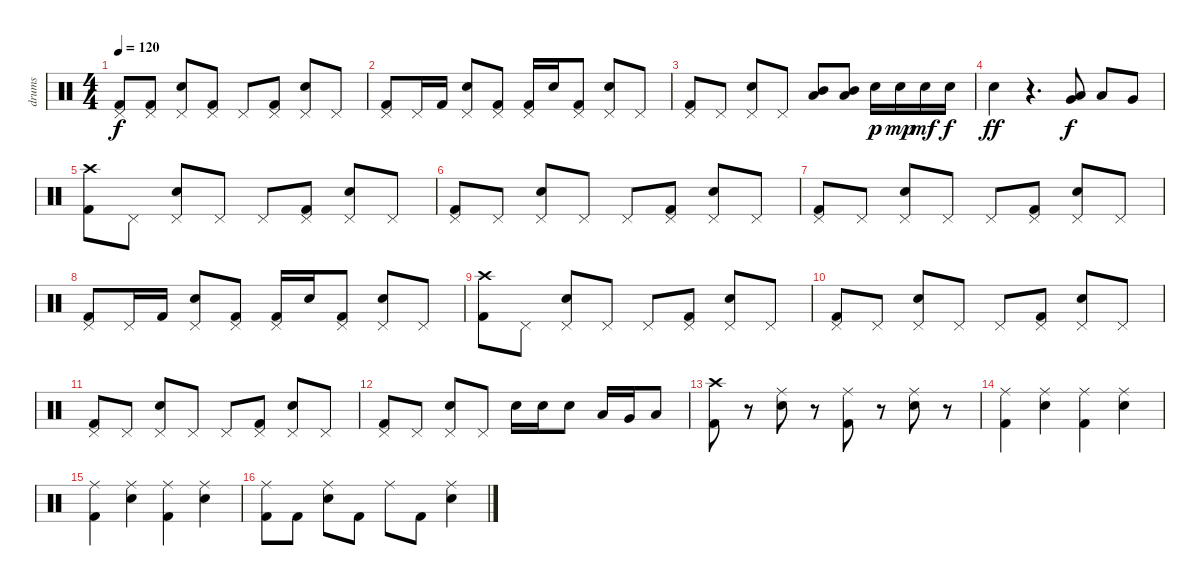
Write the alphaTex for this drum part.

\track ("drums" "drums") {instrument percussion}
\staff {score}
\articulation defaults
\ts (4 4)
\tempo 120
\clef neutral
\ks c
("Pedal Hi-Hat (hit)" "Kick (hit) 2").8{dy f} ("Pedal Hi-Hat (hit)" "Kick (hit) 2").8 ("Pedal Hi-Hat (hit)" "Electric Snare (hit)").8 ("Pedal Hi-Hat (hit)" "Kick (hit) 2").8 "Pedal Hi-Hat (hit)".8 ("Pedal Hi-Hat (hit)" "Kick (hit) 2").8 ("Pedal Hi-Hat (hit)" "Electric Snare (hit)").8 "Pedal Hi-Hat (hit)".8 |
("Pedal Hi-Hat (hit)" "Kick (hit) 2").8 "Pedal Hi-Hat (hit)".16 "Kick (hit) 2".16 ("Pedal Hi-Hat (hit)" "Electric Snare (hit)").8 ("Pedal Hi-Hat (hit)" "Kick (hit) 2").8 ("Pedal Hi-Hat (hit)" "Kick (hit) 2").16 "Electric Snare (hit)".16 ("Pedal Hi-Hat (hit)" "Kick (hit) 2").8 ("Pedal Hi-Hat (hit)" "Electric Snare (hit)").8 "Pedal Hi-Hat (hit)".8 |
("Pedal Hi-Hat (hit)" "Kick (hit) 2").8 "Pedal Hi-Hat (hit)".8 ("Pedal Hi-Hat (hit)" "Electric Snare (hit)").8 "Pedal Hi-Hat (hit)".8 ("Mid Tom (hit)" "Low Tom (hit)").8 ("Mid Tom (hit)" "Low Tom (hit)").8 "Electric Snare (hit)".16{dy p} "Electric Snare (hit)".16{dy mp} "Electric Snare (hit)".16{dy mf} "Electric Snare (hit)".16{dy f} |
"Electric Snare (hit)".4{dy ff} r.4{d} ("Very Low Tom (hit)" "Low Tom (hit)").8{dy f} "Low Tom (hit)".8 "Very Low Tom (hit)".8 |
("Crash high (hit)" "Kick (hit) 2").8 "Pedal Hi-Hat (hit)".8 ("Pedal Hi-Hat (hit)" "Electric Snare (hit)").8 "Pedal Hi-Hat (hit)".8 "Pedal Hi-Hat (hit)".8 ("Pedal Hi-Hat (hit)" "Kick (hit) 2").8 ("Pedal Hi-Hat (hit)" "Electric Snare (hit)").8 "Pedal Hi-Hat (hit)".8 |
("Pedal Hi-Hat (hit)" "Kick (hit) 2").8 "Pedal Hi-Hat (hit)".8 ("Pedal Hi-Hat (hit)" "Electric Snare (hit)").8 "Pedal Hi-Hat (hit)".8 "Pedal Hi-Hat (hit)".8 ("Pedal Hi-Hat (hit)" "Kick (hit) 2").8 ("Pedal Hi-Hat (hit)" "Electric Snare (hit)").8 "Pedal Hi-Hat (hit)".8 |
("Pedal Hi-Hat (hit)" "Kick (hit) 2").8 "Pedal Hi-Hat (hit)".8 ("Pedal Hi-Hat (hit)" "Electric Snare (hit)").8 "Pedal Hi-Hat (hit)".8 "Pedal Hi-Hat (hit)".8 ("Pedal Hi-Hat (hit)" "Kick (hit) 2").8 ("Pedal Hi-Hat (hit)" "Electric Snare (hit)").8 "Pedal Hi-Hat (hit)".8 |
("Pedal Hi-Hat (hit)" "Kick (hit) 2").8 "Pedal Hi-Hat (hit)".16 "Kick (hit) 2".16 ("Pedal Hi-Hat (hit)" "Electric Snare (hit)").8 ("Pedal Hi-Hat (hit)" "Kick (hit) 2").8 ("Pedal Hi-Hat (hit)" "Kick (hit) 2").16 "Electric Snare (hit)".16 ("Pedal Hi-Hat (hit)" "Kick (hit) 2").8 ("Pedal Hi-Hat (hit)" "Electric Snare (hit)").8 "Pedal Hi-Hat (hit)".8 |
("Crash high (hit)" "Kick (hit) 2").8 "Pedal Hi-Hat (hit)".8 ("Pedal Hi-Hat (hit)" "Electric Snare (hit)").8 "Pedal Hi-Hat (hit)".8 "Pedal Hi-Hat (hit)".8 ("Pedal Hi-Hat (hit)" "Kick (hit) 2").8 ("Pedal Hi-Hat (hit)" "Electric Snare (hit)").8 "Pedal Hi-Hat (hit)".8 |
("Pedal Hi-Hat (hit)" "Kick (hit) 2").8 "Pedal Hi-Hat (hit)".8 ("Pedal Hi-Hat (hit)" "Electric Snare (hit)").8 "Pedal Hi-Hat (hit)".8 "Pedal Hi-Hat (hit)".8 ("Pedal Hi-Hat (hit)" "Kick (hit) 2").8 ("Pedal Hi-Hat (hit)" "Electric Snare (hit)").8 "Pedal Hi-Hat (hit)".8 |
("Pedal Hi-Hat (hit)" "Kick (hit) 2").8 "Pedal Hi-Hat (hit)".8 ("Pedal Hi-Hat (hit)" "Electric Snare (hit)").8 "Pedal Hi-Hat (hit)".8 "Pedal Hi-Hat (hit)".8 ("Pedal Hi-Hat (hit)" "Kick (hit) 2").8 ("Pedal Hi-Hat (hit)" "Electric Snare (hit)").8 "Pedal Hi-Hat (hit)".8 |
("Pedal Hi-Hat (hit)" "Kick (hit) 2").8 "Pedal Hi-Hat (hit)".8 ("Pedal Hi-Hat (hit)" "Electric Snare (hit)").8 "Pedal Hi-Hat (hit)".8 "Electric Snare (hit)".16 "Electric Snare (hit)".16 "Electric Snare (hit)".8 "Low Tom (hit)".16 "Very Low Tom (hit)".16 "Low Floor Tom (hit)".8 |
("Crash high (hit)" "Kick (hit) 2").8 r.8 ("Ride (middle)" "Electric Snare (hit)").8 r.8 ("Ride (middle)" "Kick (hit) 2").8 r.8 ("Ride (middle)" "Electric Snare (hit)").8 r.8 |
("Ride (middle)" "Kick (hit) 2").4 ("Ride (middle)" "Electric Snare (hit)").4 ("Ride (middle)" "Kick (hit) 2").4 ("Ride (middle)" "Electric Snare (hit)").4 |
("Ride (middle)" "Kick (hit) 2").4 ("Ride (middle)" "Electric Snare (hit)").4 ("Ride (middle)" "Kick (hit) 2").4 ("Ride (middle)" "Electric Snare (hit)").4 |
("Ride (middle)" "Kick (hit) 2").8 "Kick (hit) 2".8 ("Ride (middle)" "Electric Snare (hit)").8 "Kick (hit) 2".8 "Ride (middle)".8 "Kick (hit) 2".8 ("Ride (middle)" "Electric Snare (hit)").4
